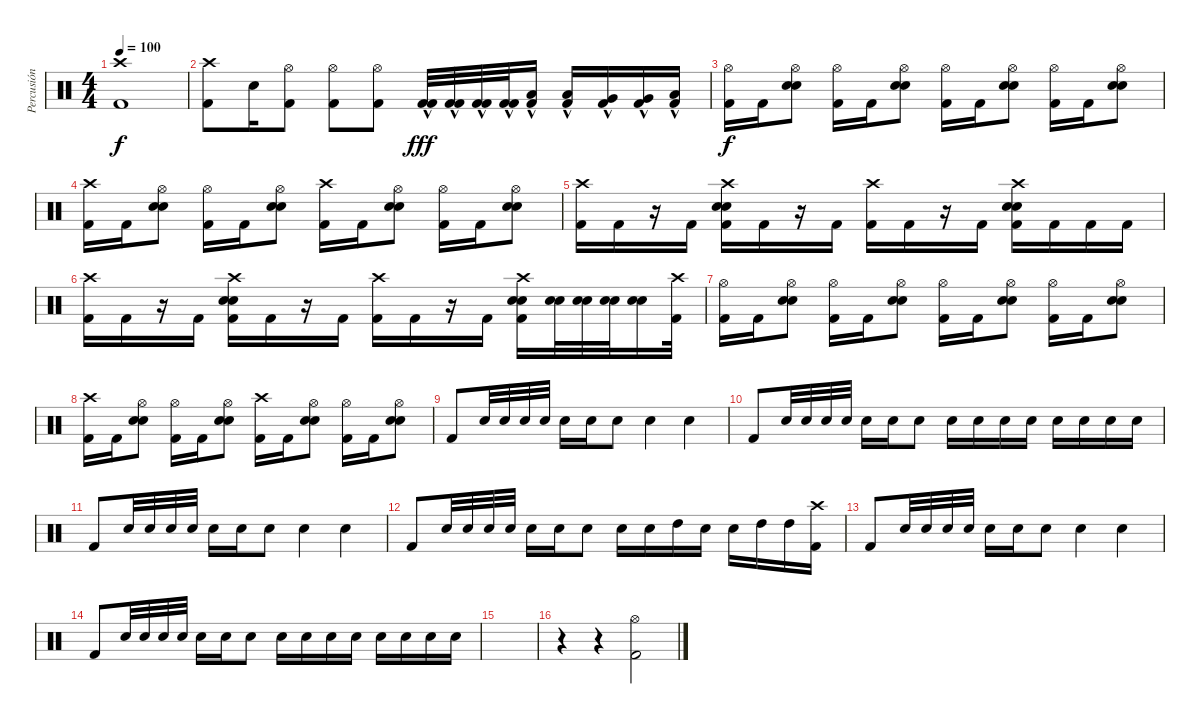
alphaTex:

\track ("Percusión" "Percusión") {instrument percussion}
\staff {score}
\articulation defaults
\ts (4 4)
\tempo 100
\clef neutral
\ks c
("Crash high (hit)" "Kick (hit) 2").1{dy f} |
("Crash high (hit)" "Kick (hit) 2").8 "Electric Snare (hit)".16 ("Hi-Hat (open)" "Kick (hit) 2").8 ("Hi-Hat (open)" "Kick (hit) 2").8 ("Hi-Hat (open)" "Kick (hit) 2").8 ("Kick (hit) 2"{hac} "Kick (hit) 2").32{dy fff} ("Kick (hit) 2"{hac} "Kick (hit) 2").32 ("Kick (hit) 2"{hac} "Kick (hit) 2").32 ("Kick (hit) 2"{hac} "Kick (hit) 2").32 ("Low Tom (hit)"{hac} "Kick (hit) 2").16 ("Low Tom (hit)"{hac} "Kick (hit) 2").16 ("Very Low Tom (hit)"{hac} "Kick (hit) 2").16 ("Very Low Tom (hit)"{hac} "Kick (hit) 2").16 ("Low Floor Tom (hit)"{hac} "Kick (hit) 2").16 |
("Hi-Hat (open)" "Kick (hit) 2").16{dy f} "Kick (hit) 2".16 ("Hi-Hat (open)" "Electric Snare (hit)" "Electric Snare (hit)").8 ("Hi-Hat (open)" "Kick (hit) 2").16 "Kick (hit) 2".16 ("Hi-Hat (open)" "Electric Snare (hit)" "Electric Snare (hit)").8 ("Hi-Hat (open)" "Kick (hit) 2").16 "Kick (hit) 2".16 ("Hi-Hat (open)" "Electric Snare (hit)" "Electric Snare (hit)").8 ("Hi-Hat (open)" "Kick (hit) 2").16 "Kick (hit) 2".16 ("Hi-Hat (open)" "Electric Snare (hit)" "Electric Snare (hit)").8 |
("Crash high (hit)" "Kick (hit) 2").16 "Kick (hit) 2".16 ("Hi-Hat (open)" "Electric Snare (hit)" "Electric Snare (hit)").8 ("Hi-Hat (open)" "Kick (hit) 2").16 "Kick (hit) 2".16 ("Hi-Hat (open)" "Electric Snare (hit)" "Electric Snare (hit)").8 ("Crash high (hit)" "Kick (hit) 2").16 "Kick (hit) 2".16 ("Hi-Hat (open)" "Electric Snare (hit)" "Electric Snare (hit)").8 ("Hi-Hat (open)" "Kick (hit) 2").16 "Kick (hit) 2".16 ("Hi-Hat (open)" "Electric Snare (hit)" "Electric Snare (hit)").8 |
("Crash high (hit)" "Kick (hit) 2").16 "Kick (hit) 2".16 r.16 "Kick (hit) 2".16 ("Crash high (hit)" "Electric Snare (hit)" "Electric Snare (hit)" "Kick (hit) 2").16 "Kick (hit) 2".16 r.16 "Kick (hit) 2".16 ("Crash high (hit)" "Kick (hit) 2").16 "Kick (hit) 2".16 r.16 "Kick (hit) 2".16 ("Crash high (hit)" "Electric Snare (hit)" "Electric Snare (hit)" "Kick (hit) 2").16 "Kick (hit) 2".16 "Kick (hit) 2".16 "Kick (hit) 2".16 |
("Crash high (hit)" "Kick (hit) 2").16 "Kick (hit) 2".16 r.16 "Kick (hit) 2".16 ("Crash high (hit)" "Electric Snare (hit)" "Electric Snare (hit)" "Kick (hit) 2").16 "Kick (hit) 2".16 r.16 "Kick (hit) 2".16 ("Crash high (hit)" "Kick (hit) 2").16 "Kick (hit) 2".16 r.16 "Kick (hit) 2".16 ("Crash high (hit)" "Electric Snare (hit)" "Electric Snare (hit)" "Kick (hit) 2").16 ("Electric Snare (hit)" "Electric Snare (hit)").32 ("Electric Snare (hit)" "Electric Snare (hit)").32 ("Electric Snare (hit)" "Electric Snare (hit)").32 ("Electric Snare (hit)" "Electric Snare (hit)").16 ("Crash high (hit)" "Kick (hit) 2").32 |
("Hi-Hat (open)" "Kick (hit) 2").16 "Kick (hit) 2".16 ("Hi-Hat (open)" "Electric Snare (hit)" "Electric Snare (hit)").8 ("Hi-Hat (open)" "Kick (hit) 2").16 "Kick (hit) 2".16 ("Hi-Hat (open)" "Electric Snare (hit)" "Electric Snare (hit)").8 ("Hi-Hat (open)" "Kick (hit) 2").16 "Kick (hit) 2".16 ("Hi-Hat (open)" "Electric Snare (hit)" "Electric Snare (hit)").8 ("Hi-Hat (open)" "Kick (hit) 2").16 "Kick (hit) 2".16 ("Hi-Hat (open)" "Electric Snare (hit)" "Electric Snare (hit)").8 |
("Crash high (hit)" "Kick (hit) 2").16 "Kick (hit) 2".16 ("Hi-Hat (open)" "Electric Snare (hit)" "Electric Snare (hit)").8 ("Hi-Hat (open)" "Kick (hit) 2").16 "Kick (hit) 2".16 ("Hi-Hat (open)" "Electric Snare (hit)" "Electric Snare (hit)").8 ("Crash high (hit)" "Kick (hit) 2").16 "Kick (hit) 2".16 ("Hi-Hat (open)" "Electric Snare (hit)" "Electric Snare (hit)").8 ("Hi-Hat (open)" "Kick (hit) 2").16 "Kick (hit) 2".16 ("Hi-Hat (open)" "Electric Snare (hit)" "Electric Snare (hit)").8 |
"Kick (hit) 2".8 "Snare (hit) 2".32 "Snare (hit) 2".32 "Snare (hit) 2".32 "Snare (hit) 2".32 "Snare (hit) 2".16 "Snare (hit) 2".16 "Snare (hit) 2".8 "Snare (hit) 2".4 "Snare (hit) 2".4 |
"Kick (hit) 2".8 "Snare (hit) 2".32 "Snare (hit) 2".32 "Snare (hit) 2".32 "Snare (hit) 2".32 "Snare (hit) 2".16 "Snare (hit) 2".16 "Snare (hit) 2".8 "Snare (hit) 2".16 "Snare (hit) 2".16 "Snare (hit) 2".16 "Snare (hit) 2".16 "Snare (hit) 2".16 "Snare (hit) 2".16 "Snare (hit) 2".16 "Snare (hit) 2".16 |
"Kick (hit) 2".8 "Snare (hit) 2".32 "Snare (hit) 2".32 "Snare (hit) 2".32 "Snare (hit) 2".32 "Snare (hit) 2".16 "Snare (hit) 2".16 "Snare (hit) 2".8 "Snare (hit) 2".4 "Snare (hit) 2".4 |
"Kick (hit) 2".8 "Snare (hit) 2".32 "Snare (hit) 2".32 "Snare (hit) 2".32 "Snare (hit) 2".32 "Snare (hit) 2".16 "Snare (hit) 2".16 "Snare (hit) 2".8 "Snare (hit) 2".16 "Snare (hit) 2".16 "High Tom (hit)".16 "Snare (hit) 2".16 "Snare (hit) 2".16 "High Tom (hit)".16 "High Tom (hit)".16 ("Crash high (hit)" "Kick (hit) 2").16 |
"Kick (hit) 2".8 "Snare (hit) 2".32 "Snare (hit) 2".32 "Snare (hit) 2".32 "Snare (hit) 2".32 "Snare (hit) 2".16 "Snare (hit) 2".16 "Snare (hit) 2".8 "Snare (hit) 2".4 "Snare (hit) 2".4 |
"Kick (hit) 2".8 "Snare (hit) 2".32 "Snare (hit) 2".32 "Snare (hit) 2".32 "Snare (hit) 2".32 "Snare (hit) 2".16 "Snare (hit) 2".16 "Snare (hit) 2".8 "Snare (hit) 2".16 "Snare (hit) 2".16 "Snare (hit) 2".16 "Snare (hit) 2".16 "Snare (hit) 2".16 "Snare (hit) 2".16 "Snare (hit) 2".16 "Snare (hit) 2".16 |
|
r.4 r.4 ("Hi-Hat (open)" "Kick (hit) 2").2
